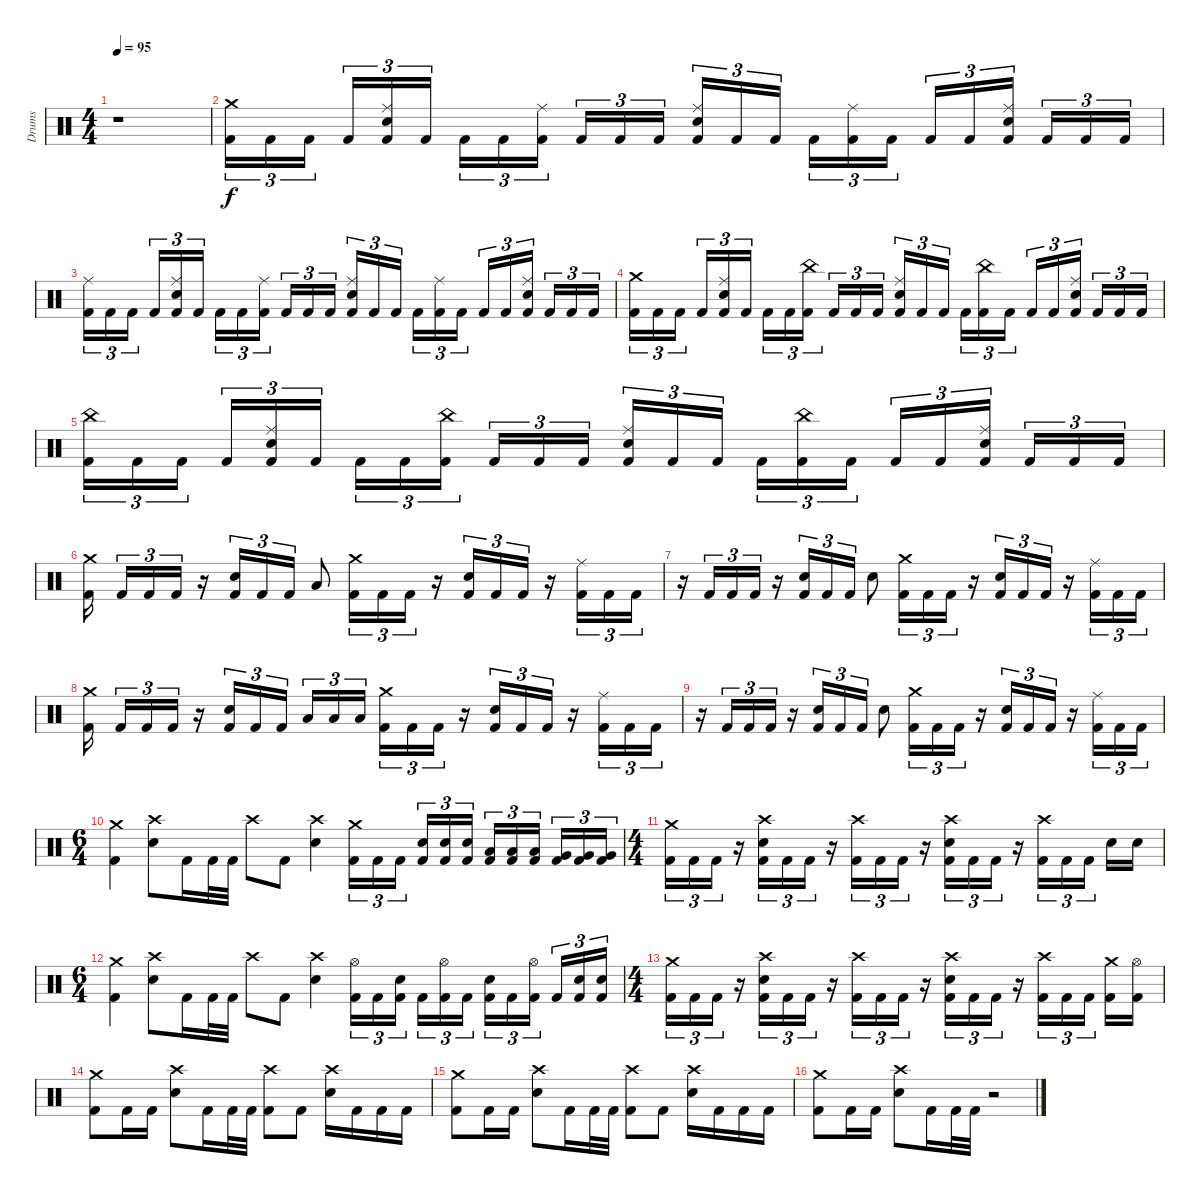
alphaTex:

\track ("Drums" "Drums") {instrument percussion}
\staff {score}
\articulation defaults
\ts (4 4)
\tempo 95
\clef neutral
\ks c
r.1{dy f} |
("Crash medium (hit)" "Kick (hit) 2").16{tu (3 2)} "Kick (hit) 2".16{tu (3 2)} "Kick (hit) 2".16{tu (3 2)} "Kick (hit) 2".16{tu (3 2)} ("Ride (middle)" "Electric Snare (hit)" "Kick (hit) 2").16{tu (3 2)} "Kick (hit) 2".16{tu (3 2)} "Kick (hit) 2".16{tu (3 2)} "Kick (hit) 2".16{tu (3 2)} ("Ride (middle)" "Kick (hit) 2").16{tu (3 2)} "Kick (hit) 2".16{tu (3 2)} "Kick (hit) 2".16{tu (3 2)} "Kick (hit) 2".16{tu (3 2)} ("Ride (middle)" "Electric Snare (hit)" "Kick (hit) 2").16{tu (3 2)} "Kick (hit) 2".16{tu (3 2)} "Kick (hit) 2".16{tu (3 2)} "Kick (hit) 2".16{tu (3 2)} ("Ride (middle)" "Kick (hit) 2").16{tu (3 2)} "Kick (hit) 2".16{tu (3 2)} "Kick (hit) 2".16{tu (3 2)} "Kick (hit) 2".16{tu (3 2)} ("Ride (middle)" "Electric Snare (hit)" "Kick (hit) 2").16{tu (3 2)} "Kick (hit) 2".16{tu (3 2)} "Kick (hit) 2".16{tu (3 2)} "Kick (hit) 2".16{tu (3 2)} |
("Ride (middle)" "Kick (hit) 2").16{tu (3 2)} "Kick (hit) 2".16{tu (3 2)} "Kick (hit) 2".16{tu (3 2)} "Kick (hit) 2".16{tu (3 2)} ("Ride (middle)" "Electric Snare (hit)" "Kick (hit) 2").16{tu (3 2)} "Kick (hit) 2".16{tu (3 2)} "Kick (hit) 2".16{tu (3 2)} "Kick (hit) 2".16{tu (3 2)} ("Ride (middle)" "Kick (hit) 2").16{tu (3 2)} "Kick (hit) 2".16{tu (3 2)} "Kick (hit) 2".16{tu (3 2)} "Kick (hit) 2".16{tu (3 2)} ("Ride (middle)" "Electric Snare (hit)" "Kick (hit) 2").16{tu (3 2)} "Kick (hit) 2".16{tu (3 2)} "Kick (hit) 2".16{tu (3 2)} "Kick (hit) 2".16{tu (3 2)} ("Ride (middle)" "Kick (hit) 2").16{tu (3 2)} "Kick (hit) 2".16{tu (3 2)} "Kick (hit) 2".16{tu (3 2)} "Kick (hit) 2".16{tu (3 2)} ("Ride (middle)" "Electric Snare (hit)" "Kick (hit) 2").16{tu (3 2)} "Kick (hit) 2".16{tu (3 2)} "Kick (hit) 2".16{tu (3 2)} "Kick (hit) 2".16{tu (3 2)} |
("Crash medium (hit)" "Kick (hit) 2").16{tu (3 2)} "Kick (hit) 2".16{tu (3 2)} "Kick (hit) 2".16{tu (3 2)} "Kick (hit) 2".16{tu (3 2)} ("Ride (middle)" "Electric Snare (hit)" "Kick (hit) 2").16{tu (3 2)} "Kick (hit) 2".16{tu (3 2)} "Kick (hit) 2".16{tu (3 2)} "Kick (hit) 2".16{tu (3 2)} ("China (hit)" "Kick (hit) 2").16{tu (3 2)} "Kick (hit) 2".16{tu (3 2)} "Kick (hit) 2".16{tu (3 2)} "Kick (hit) 2".16{tu (3 2)} ("Ride (middle)" "Electric Snare (hit)" "Kick (hit) 2").16{tu (3 2)} "Kick (hit) 2".16{tu (3 2)} "Kick (hit) 2".16{tu (3 2)} "Kick (hit) 2".16{tu (3 2)} ("China (hit)" "Kick (hit) 2").16{tu (3 2)} "Kick (hit) 2".16{tu (3 2)} "Kick (hit) 2".16{tu (3 2)} "Kick (hit) 2".16{tu (3 2)} ("Ride (middle)" "Electric Snare (hit)" "Kick (hit) 2").16{tu (3 2)} "Kick (hit) 2".16{tu (3 2)} "Kick (hit) 2".16{tu (3 2)} "Kick (hit) 2".16{tu (3 2)} |
("China (hit)" "Kick (hit) 2").16{tu (3 2)} "Kick (hit) 2".16{tu (3 2)} "Kick (hit) 2".16{tu (3 2)} "Kick (hit) 2".16{tu (3 2)} ("Ride (middle)" "Electric Snare (hit)" "Kick (hit) 2").16{tu (3 2)} "Kick (hit) 2".16{tu (3 2)} "Kick (hit) 2".16{tu (3 2)} "Kick (hit) 2".16{tu (3 2)} ("China (hit)" "Kick (hit) 2").16{tu (3 2)} "Kick (hit) 2".16{tu (3 2)} "Kick (hit) 2".16{tu (3 2)} "Kick (hit) 2".16{tu (3 2)} ("Ride (middle)" "Electric Snare (hit)" "Kick (hit) 2").16{tu (3 2)} "Kick (hit) 2".16{tu (3 2)} "Kick (hit) 2".16{tu (3 2)} "Kick (hit) 2".16{tu (3 2)} ("China (hit)" "Kick (hit) 2").16{tu (3 2)} "Kick (hit) 2".16{tu (3 2)} "Kick (hit) 2".16{tu (3 2)} "Kick (hit) 2".16{tu (3 2)} ("Ride (middle)" "Electric Snare (hit)" "Kick (hit) 2").16{tu (3 2)} "Kick (hit) 2".16{tu (3 2)} "Kick (hit) 2".16{tu (3 2)} "Kick (hit) 2".16{tu (3 2)} |
("Crash medium (hit)" "Kick (hit) 2").16 "Kick (hit) 2".16{tu (3 2)} "Kick (hit) 2".16{tu (3 2)} "Kick (hit) 2".16{tu (3 2)} r.16 ("Electric Snare (hit)" "Kick (hit) 2").16{tu (3 2)} "Kick (hit) 2".16{tu (3 2)} "Kick (hit) 2".16{tu (3 2)} "Low Tom (hit)".8 ("Crash medium (hit)" "Kick (hit) 2").16{tu (3 2)} "Kick (hit) 2".16{tu (3 2)} "Kick (hit) 2".16{tu (3 2)} r.16 ("Electric Snare (hit)" "Kick (hit) 2").16{tu (3 2)} "Kick (hit) 2".16{tu (3 2)} "Kick (hit) 2".16{tu (3 2)} r.16 ("Ride (middle)" "Kick (hit) 2").16{tu (3 2)} "Kick (hit) 2".16{tu (3 2)} "Kick (hit) 2".16{tu (3 2)} |
r.16 "Kick (hit) 2".16{tu (3 2)} "Kick (hit) 2".16{tu (3 2)} "Kick (hit) 2".16{tu (3 2)} r.16 ("Electric Snare (hit)" "Kick (hit) 2").16{tu (3 2)} "Kick (hit) 2".16{tu (3 2)} "Kick (hit) 2".16{tu (3 2)} "Electric Snare (hit)".8 ("Crash medium (hit)" "Kick (hit) 2").16{tu (3 2)} "Kick (hit) 2".16{tu (3 2)} "Kick (hit) 2".16{tu (3 2)} r.16 ("Electric Snare (hit)" "Kick (hit) 2").16{tu (3 2)} "Kick (hit) 2".16{tu (3 2)} "Kick (hit) 2".16{tu (3 2)} r.16 ("Ride (middle)" "Kick (hit) 2").16{tu (3 2)} "Kick (hit) 2".16{tu (3 2)} "Kick (hit) 2".16{tu (3 2)} |
("Crash medium (hit)" "Kick (hit) 2").16 "Kick (hit) 2".16{tu (3 2)} "Kick (hit) 2".16{tu (3 2)} "Kick (hit) 2".16{tu (3 2)} r.16 ("Electric Snare (hit)" "Kick (hit) 2").16{tu (3 2)} "Kick (hit) 2".16{tu (3 2)} "Kick (hit) 2".16{tu (3 2)} "Low Tom (hit)".16{tu (3 2)} "Low Tom (hit)".16{tu (3 2)} "Low Tom (hit)".16{tu (3 2)} ("Crash medium (hit)" "Kick (hit) 2").16{tu (3 2)} "Kick (hit) 2".16{tu (3 2)} "Kick (hit) 2".16{tu (3 2)} r.16 ("Electric Snare (hit)" "Kick (hit) 2").16{tu (3 2)} "Kick (hit) 2".16{tu (3 2)} "Kick (hit) 2".16{tu (3 2)} r.16 ("Ride (middle)" "Kick (hit) 2").16{tu (3 2)} "Kick (hit) 2".16{tu (3 2)} "Kick (hit) 2".16{tu (3 2)} |
r.16 "Kick (hit) 2".16{tu (3 2)} "Kick (hit) 2".16{tu (3 2)} "Kick (hit) 2".16{tu (3 2)} r.16 ("Electric Snare (hit)" "Kick (hit) 2").16{tu (3 2)} "Kick (hit) 2".16{tu (3 2)} "Kick (hit) 2".16{tu (3 2)} "Electric Snare (hit)".8 ("Crash medium (hit)" "Kick (hit) 2").16{tu (3 2)} "Kick (hit) 2".16{tu (3 2)} "Kick (hit) 2".16{tu (3 2)} r.16 ("Electric Snare (hit)" "Kick (hit) 2").16{tu (3 2)} "Kick (hit) 2".16{tu (3 2)} "Kick (hit) 2".16{tu (3 2)} r.16 ("Ride (middle)" "Kick (hit) 2").16{tu (3 2)} "Kick (hit) 2".16{tu (3 2)} "Kick (hit) 2".16{tu (3 2)} |
\ts (6 4)
("Crash medium (hit)" "Kick (hit) 2").4 ("Crash high (hit)" "Electric Snare (hit)").8 "Kick (hit) 2".16 "Kick (hit) 2".32 "Kick (hit) 2".32 "Crash high (hit)".8 "Kick (hit) 2".8 ("Crash high (hit)" "Electric Snare (hit)").4 ("Crash medium (hit)" "Kick (hit) 2").16{tu (3 2)} "Kick (hit) 2".16{tu (3 2)} "Kick (hit) 2".16{tu (3 2)} ("Electric Snare (hit)" "Kick (hit) 2").16{tu (3 2)} ("Electric Snare (hit)" "Kick (hit) 2").16{tu (3 2)} ("Electric Snare (hit)" "Kick (hit) 2").16{tu (3 2)} ("Low Tom (hit)" "Kick (hit) 2").16{tu (3 2)} ("Low Tom (hit)" "Kick (hit) 2").16{tu (3 2)} ("Low Tom (hit)" "Kick (hit) 2").16{tu (3 2)} ("Very Low Tom (hit)" "Kick (hit) 2").16{tu (3 2)} ("Very Low Tom (hit)" "Kick (hit) 2").16{tu (3 2)} ("Very Low Tom (hit)" "Kick (hit) 2").16{tu (3 2)} |
\ts (4 4)
("Crash medium (hit)" "Kick (hit) 2").16{tu (3 2)} "Kick (hit) 2".16{tu (3 2)} "Kick (hit) 2".16{tu (3 2)} r.16 ("Crash high (hit)" "Electric Snare (hit)" "Kick (hit) 2").16{tu (3 2)} "Kick (hit) 2".16{tu (3 2)} "Kick (hit) 2".16{tu (3 2)} r.16 ("Crash high (hit)" "Kick (hit) 2").16{tu (3 2)} "Kick (hit) 2".16{tu (3 2)} "Kick (hit) 2".16{tu (3 2)} r.16 ("Crash high (hit)" "Electric Snare (hit)" "Kick (hit) 2").16{tu (3 2)} "Kick (hit) 2".16{tu (3 2)} "Kick (hit) 2".16{tu (3 2)} r.16 ("Crash high (hit)" "Kick (hit) 2").16{tu (3 2)} "Kick (hit) 2".16{tu (3 2)} "Kick (hit) 2".16{tu (3 2)} "Electric Snare (hit)".16 "Electric Snare (hit)".16 |
\ts (6 4)
("Crash medium (hit)" "Kick (hit) 2").4 ("Crash high (hit)" "Electric Snare (hit)").8 "Kick (hit) 2".16 "Kick (hit) 2".32 "Kick (hit) 2".32 "Crash high (hit)".8 "Kick (hit) 2".8 ("Crash high (hit)" "Electric Snare (hit)").4 ("Hi-Hat (open)" "Kick (hit) 2").16{tu (3 2)} "Kick (hit) 2".16{tu (3 2)} ("Electric Snare (hit)" "Kick (hit) 2").16{tu (3 2)} "Kick (hit) 2".16{tu (3 2)} ("Hi-Hat (open)" "Kick (hit) 2").16{tu (3 2)} "Kick (hit) 2".16{tu (3 2)} ("Electric Snare (hit)" "Kick (hit) 2").16{tu (3 2)} "Kick (hit) 2".16{tu (3 2)} ("Hi-Hat (open)" "Kick (hit) 2").16{tu (3 2)} "Kick (hit) 2".16{tu (3 2)} ("Electric Snare (hit)" "Kick (hit) 2").16{tu (3 2)} ("Electric Snare (hit)" "Kick (hit) 2").16{tu (3 2)} |
\ts (4 4)
("Crash medium (hit)" "Kick (hit) 2").16{tu (3 2)} "Kick (hit) 2".16{tu (3 2)} "Kick (hit) 2".16{tu (3 2)} r.16 ("Crash high (hit)" "Electric Snare (hit)" "Kick (hit) 2").16{tu (3 2)} "Kick (hit) 2".16{tu (3 2)} "Kick (hit) 2".16{tu (3 2)} r.16 ("Crash high (hit)" "Kick (hit) 2").16{tu (3 2)} "Kick (hit) 2".16{tu (3 2)} "Kick (hit) 2".16{tu (3 2)} r.16 ("Crash high (hit)" "Electric Snare (hit)" "Kick (hit) 2").16{tu (3 2)} "Kick (hit) 2".16{tu (3 2)} "Kick (hit) 2".16{tu (3 2)} r.16 ("Crash high (hit)" "Kick (hit) 2").16{tu (3 2)} "Kick (hit) 2".16{tu (3 2)} "Kick (hit) 2".16{tu (3 2)} ("Crash medium (hit)" "Kick (hit) 2").16 ("Hi-Hat (open)" "Kick (hit) 2").16 |
("Crash medium (hit)" "Kick (hit) 2").8 "Kick (hit) 2".16 "Kick (hit) 2".16 ("Crash high (hit)" "Electric Snare (hit)").8 "Kick (hit) 2".16 "Kick (hit) 2".32 "Kick (hit) 2".32 ("Crash high (hit)" "Kick (hit) 2").8 "Kick (hit) 2".8 ("Crash high (hit)" "Electric Snare (hit)").16 "Kick (hit) 2".16 "Kick (hit) 2".16 "Kick (hit) 2".16 |
("Crash medium (hit)" "Kick (hit) 2").8 "Kick (hit) 2".16 "Kick (hit) 2".16 ("Crash high (hit)" "Electric Snare (hit)").8 "Kick (hit) 2".16 "Kick (hit) 2".32 "Kick (hit) 2".32 ("Crash high (hit)" "Kick (hit) 2").8 "Kick (hit) 2".8 ("Crash high (hit)" "Electric Snare (hit)").16 "Kick (hit) 2".16 "Kick (hit) 2".16 "Kick (hit) 2".16 |
("Crash medium (hit)" "Kick (hit) 2").8 "Kick (hit) 2".16 "Kick (hit) 2".16 ("Crash high (hit)" "Electric Snare (hit)").8 "Kick (hit) 2".16 "Kick (hit) 2".32 "Kick (hit) 2".32 r.2
